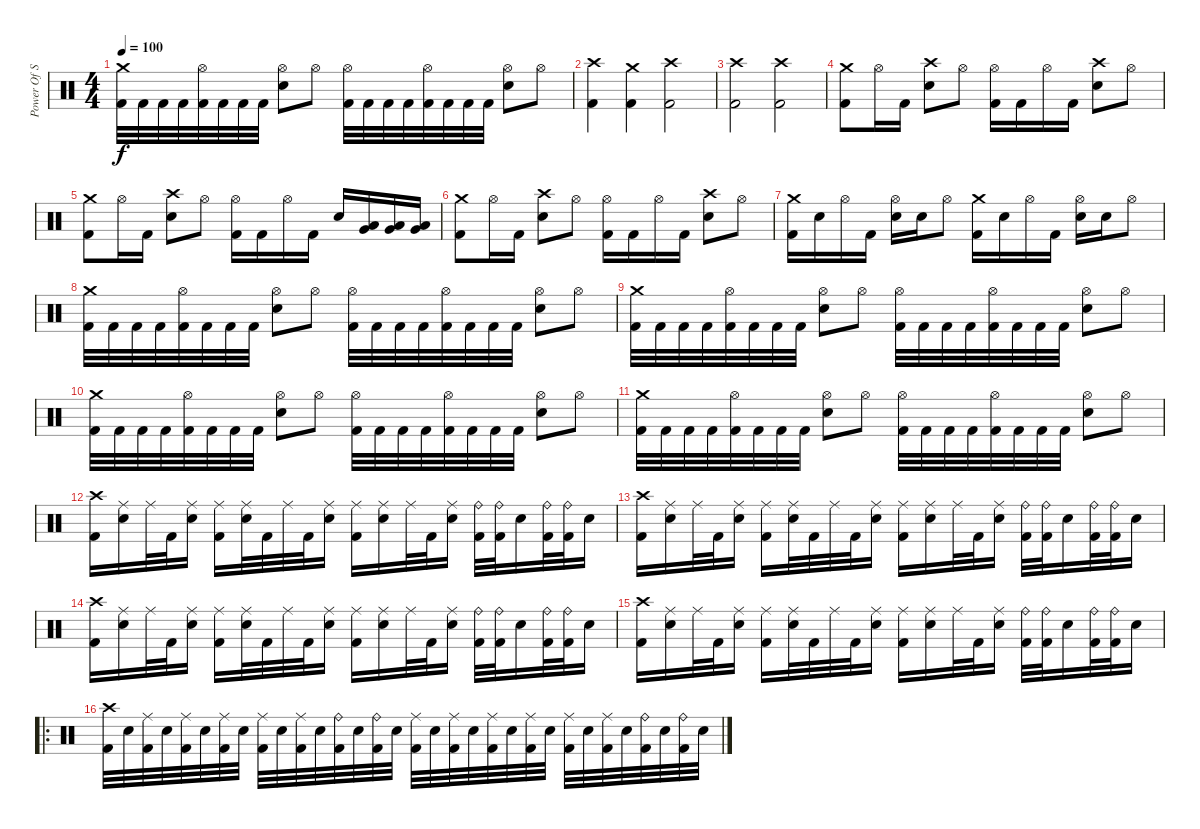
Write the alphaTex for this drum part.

\track ("Power Of Steel" "Power Of S") {instrument percussion}
\staff {score}
\articulation defaults
\ts (4 4)
\tempo 100
\clef neutral
\ks c
("Crash medium (hit)" "Kick (hit) 2").32{dy f} "Kick (hit) 2".32 "Kick (hit) 2".32 "Kick (hit) 2".32 ("Hi-Hat (open)" "Kick (hit) 2").32 "Kick (hit) 2".32 "Kick (hit) 2".32 "Kick (hit) 2".32 ("Hi-Hat (open)" "Electric Snare (hit)").8 "Hi-Hat (open)".8 ("Hi-Hat (open)" "Kick (hit) 2").32 "Kick (hit) 2".32 "Kick (hit) 2".32 "Kick (hit) 2".32 ("Hi-Hat (open)" "Kick (hit) 2").32 "Kick (hit) 2".32 "Kick (hit) 2".32 "Kick (hit) 2".32 ("Hi-Hat (open)" "Electric Snare (hit)").8 "Hi-Hat (open)".8 |
("Crash high (hit)" "Kick (hit) 2").4 ("Crash medium (hit)" "Kick (hit) 2").4 ("Crash high (hit)" "Kick (hit) 2").2 |
("Crash high (hit)" "Kick (hit) 2").2 ("Crash high (hit)" "Kick (hit) 2").2 |
("Crash medium (hit)" "Kick (hit) 2").8 "Hi-Hat (open)".16 "Kick (hit) 2".16 ("Crash high (hit)" "Electric Snare (hit)").8 "Hi-Hat (open)".8 ("Hi-Hat (open)" "Kick (hit) 2").16 "Kick (hit) 2".16 "Hi-Hat (open)".16 "Kick (hit) 2".16 ("Crash high (hit)" "Electric Snare (hit)").8 "Hi-Hat (open)".8 |
("Crash medium (hit)" "Kick (hit) 2").8 "Hi-Hat (open)".16 "Kick (hit) 2".16 ("Crash high (hit)" "Electric Snare (hit)").8 "Hi-Hat (open)".8 ("Hi-Hat (open)" "Kick (hit) 2").16 "Kick (hit) 2".16 "Hi-Hat (open)".16 "Kick (hit) 2".16 "Electric Snare (hit)".16 ("Low Tom (hit)" "Very Low Tom (hit)").16 ("Very Low Tom (hit)" "Low Floor Tom (hit)").16 ("Very Low Tom (hit)" "Low Floor Tom (hit)").16 |
("Crash medium (hit)" "Kick (hit) 2").8 "Hi-Hat (open)".16 "Kick (hit) 2".16 ("Crash high (hit)" "Electric Snare (hit)").8 "Hi-Hat (open)".8 ("Hi-Hat (open)" "Kick (hit) 2").16 "Kick (hit) 2".16 "Hi-Hat (open)".16 "Kick (hit) 2".16 ("Crash high (hit)" "Electric Snare (hit)").8 "Hi-Hat (open)".8 |
("Crash medium (hit)" "Kick (hit) 2").16 "Electric Snare (hit)".16 "Hi-Hat (open)".16 "Kick (hit) 2".16 ("Hi-Hat (open)" "Electric Snare (hit)").16 "Electric Snare (hit)".16 "Hi-Hat (open)".8 ("Crash medium (hit)" "Kick (hit) 2").16 "Electric Snare (hit)".16 "Hi-Hat (open)".16 "Kick (hit) 2".16 ("Hi-Hat (open)" "Electric Snare (hit)").16 "Electric Snare (hit)".16 "Hi-Hat (open)".8 |
("Crash medium (hit)" "Kick (hit) 2").32 "Kick (hit) 2".32 "Kick (hit) 2".32 "Kick (hit) 2".32 ("Hi-Hat (open)" "Kick (hit) 2").32 "Kick (hit) 2".32 "Kick (hit) 2".32 "Kick (hit) 2".32 ("Hi-Hat (open)" "Electric Snare (hit)").8 "Hi-Hat (open)".8 ("Hi-Hat (open)" "Kick (hit) 2").32 "Kick (hit) 2".32 "Kick (hit) 2".32 "Kick (hit) 2".32 ("Hi-Hat (open)" "Kick (hit) 2").32 "Kick (hit) 2".32 "Kick (hit) 2".32 "Kick (hit) 2".32 ("Hi-Hat (open)" "Electric Snare (hit)").8 "Hi-Hat (open)".8 |
("Crash medium (hit)" "Kick (hit) 2").32 "Kick (hit) 2".32 "Kick (hit) 2".32 "Kick (hit) 2".32 ("Hi-Hat (open)" "Kick (hit) 2").32 "Kick (hit) 2".32 "Kick (hit) 2".32 "Kick (hit) 2".32 ("Hi-Hat (open)" "Electric Snare (hit)").8 "Hi-Hat (open)".8 ("Hi-Hat (open)" "Kick (hit) 2").32 "Kick (hit) 2".32 "Kick (hit) 2".32 "Kick (hit) 2".32 ("Hi-Hat (open)" "Kick (hit) 2").32 "Kick (hit) 2".32 "Kick (hit) 2".32 "Kick (hit) 2".32 ("Hi-Hat (open)" "Electric Snare (hit)").8 "Hi-Hat (open)".8 |
("Crash medium (hit)" "Kick (hit) 2").32 "Kick (hit) 2".32 "Kick (hit) 2".32 "Kick (hit) 2".32 ("Hi-Hat (open)" "Kick (hit) 2").32 "Kick (hit) 2".32 "Kick (hit) 2".32 "Kick (hit) 2".32 ("Hi-Hat (open)" "Electric Snare (hit)").8 "Hi-Hat (open)".8 ("Hi-Hat (open)" "Kick (hit) 2").32 "Kick (hit) 2".32 "Kick (hit) 2".32 "Kick (hit) 2".32 ("Hi-Hat (open)" "Kick (hit) 2").32 "Kick (hit) 2".32 "Kick (hit) 2".32 "Kick (hit) 2".32 ("Hi-Hat (open)" "Electric Snare (hit)").8 "Hi-Hat (open)".8 |
("Crash medium (hit)" "Kick (hit) 2").32 "Kick (hit) 2".32 "Kick (hit) 2".32 "Kick (hit) 2".32 ("Hi-Hat (open)" "Kick (hit) 2").32 "Kick (hit) 2".32 "Kick (hit) 2".32 "Kick (hit) 2".32 ("Hi-Hat (open)" "Electric Snare (hit)").8 "Hi-Hat (open)".8 ("Hi-Hat (open)" "Kick (hit) 2").32 "Kick (hit) 2".32 "Kick (hit) 2".32 "Kick (hit) 2".32 ("Hi-Hat (open)" "Kick (hit) 2").32 "Kick (hit) 2".32 "Kick (hit) 2".32 "Kick (hit) 2".32 ("Hi-Hat (open)" "Electric Snare (hit)").8 "Hi-Hat (open)".8 |
("Crash high (hit)" "Kick (hit) 2").16 ("Ride (middle)" "Electric Snare (hit)").16 "Ride (middle)".32 "Kick (hit) 2".32 ("Ride (middle)" "Electric Snare (hit)").16 ("Ride (middle)" "Kick (hit) 2").16 ("Ride (middle)" "Electric Snare (hit)").32 "Kick (hit) 2".32 "Ride (middle)".32 "Kick (hit) 2".32 ("Ride (middle)" "Electric Snare (hit)").16 ("Ride (middle)" "Kick (hit) 2").16 ("Ride (middle)" "Electric Snare (hit)").16 "Ride (middle)".32 "Kick (hit) 2".32 ("Ride (middle)" "Electric Snare (hit)").16 ("Ride (bell)" "Kick (hit) 2").32 ("Ride (bell)" "Kick (hit) 2").32 "Electric Snare (hit)".16 ("Ride (bell)" "Kick (hit) 2").32 ("Ride (bell)" "Kick (hit) 2").32 "Electric Snare (hit)".16 |
("Crash high (hit)" "Kick (hit) 2").16 ("Ride (middle)" "Electric Snare (hit)").16 "Ride (middle)".32 "Kick (hit) 2".32 ("Ride (middle)" "Electric Snare (hit)").16 ("Ride (middle)" "Kick (hit) 2").16 ("Ride (middle)" "Electric Snare (hit)").32 "Kick (hit) 2".32 "Ride (middle)".32 "Kick (hit) 2".32 ("Ride (middle)" "Electric Snare (hit)").16 ("Ride (middle)" "Kick (hit) 2").16 ("Ride (middle)" "Electric Snare (hit)").16 "Ride (middle)".32 "Kick (hit) 2".32 ("Ride (middle)" "Electric Snare (hit)").16 ("Ride (bell)" "Kick (hit) 2").32 ("Ride (bell)" "Kick (hit) 2").32 "Electric Snare (hit)".16 ("Ride (bell)" "Kick (hit) 2").32 ("Ride (bell)" "Kick (hit) 2").32 "Electric Snare (hit)".16 |
("Crash high (hit)" "Kick (hit) 2").16 ("Ride (middle)" "Electric Snare (hit)").16 "Ride (middle)".32 "Kick (hit) 2".32 ("Ride (middle)" "Electric Snare (hit)").16 ("Ride (middle)" "Kick (hit) 2").16 ("Ride (middle)" "Electric Snare (hit)").32 "Kick (hit) 2".32 "Ride (middle)".32 "Kick (hit) 2".32 ("Ride (middle)" "Electric Snare (hit)").16 ("Ride (middle)" "Kick (hit) 2").16 ("Ride (middle)" "Electric Snare (hit)").16 "Ride (middle)".32 "Kick (hit) 2".32 ("Ride (middle)" "Electric Snare (hit)").16 ("Ride (bell)" "Kick (hit) 2").32 ("Ride (bell)" "Kick (hit) 2").32 "Electric Snare (hit)".16 ("Ride (bell)" "Kick (hit) 2").32 ("Ride (bell)" "Kick (hit) 2").32 "Electric Snare (hit)".16 |
("Crash high (hit)" "Kick (hit) 2").16 ("Ride (middle)" "Electric Snare (hit)").16 "Ride (middle)".32 "Kick (hit) 2".32 ("Ride (middle)" "Electric Snare (hit)").16 ("Ride (middle)" "Kick (hit) 2").16 ("Ride (middle)" "Electric Snare (hit)").32 "Kick (hit) 2".32 "Ride (middle)".32 "Kick (hit) 2".32 ("Ride (middle)" "Electric Snare (hit)").16 ("Ride (middle)" "Kick (hit) 2").16 ("Ride (middle)" "Electric Snare (hit)").16 "Ride (middle)".32 "Kick (hit) 2".32 ("Ride (middle)" "Electric Snare (hit)").16 ("Ride (bell)" "Kick (hit) 2").32 ("Ride (bell)" "Kick (hit) 2").32 "Electric Snare (hit)".16 ("Ride (bell)" "Kick (hit) 2").32 ("Ride (bell)" "Kick (hit) 2").32 "Electric Snare (hit)".16 |
\ro
("Crash high (hit)" "Kick (hit) 2").32 "Electric Snare (hit)".32 ("Ride (middle)" "Kick (hit) 2").32 "Electric Snare (hit)".32 ("Ride (middle)" "Kick (hit) 2").32 "Electric Snare (hit)".32 ("Ride (middle)" "Kick (hit) 2").32 "Electric Snare (hit)".32 ("Ride (middle)" "Kick (hit) 2").32 "Electric Snare (hit)".32 ("Ride (middle)" "Kick (hit) 2").32 "Electric Snare (hit)".32 ("Ride (bell)" "Kick (hit) 2").32 "Electric Snare (hit)".32 ("Ride (bell)" "Kick (hit) 2").32 "Electric Snare (hit)".32 ("Ride (middle)" "Kick (hit) 2").32 "Electric Snare (hit)".32 ("Ride (middle)" "Kick (hit) 2").32 "Electric Snare (hit)".32 ("Ride (middle)" "Kick (hit) 2").32 "Electric Snare (hit)".32 ("Ride (middle)" "Kick (hit) 2").32 "Electric Snare (hit)".32 ("Ride (middle)" "Kick (hit) 2").32 "Electric Snare (hit)".32 ("Ride (middle)" "Kick (hit) 2").32 "Electric Snare (hit)".32 ("Ride (bell)" "Kick (hit) 2").32 "Electric Snare (hit)".32 ("Ride (bell)" "Kick (hit) 2").32 "Electric Snare (hit)".32
